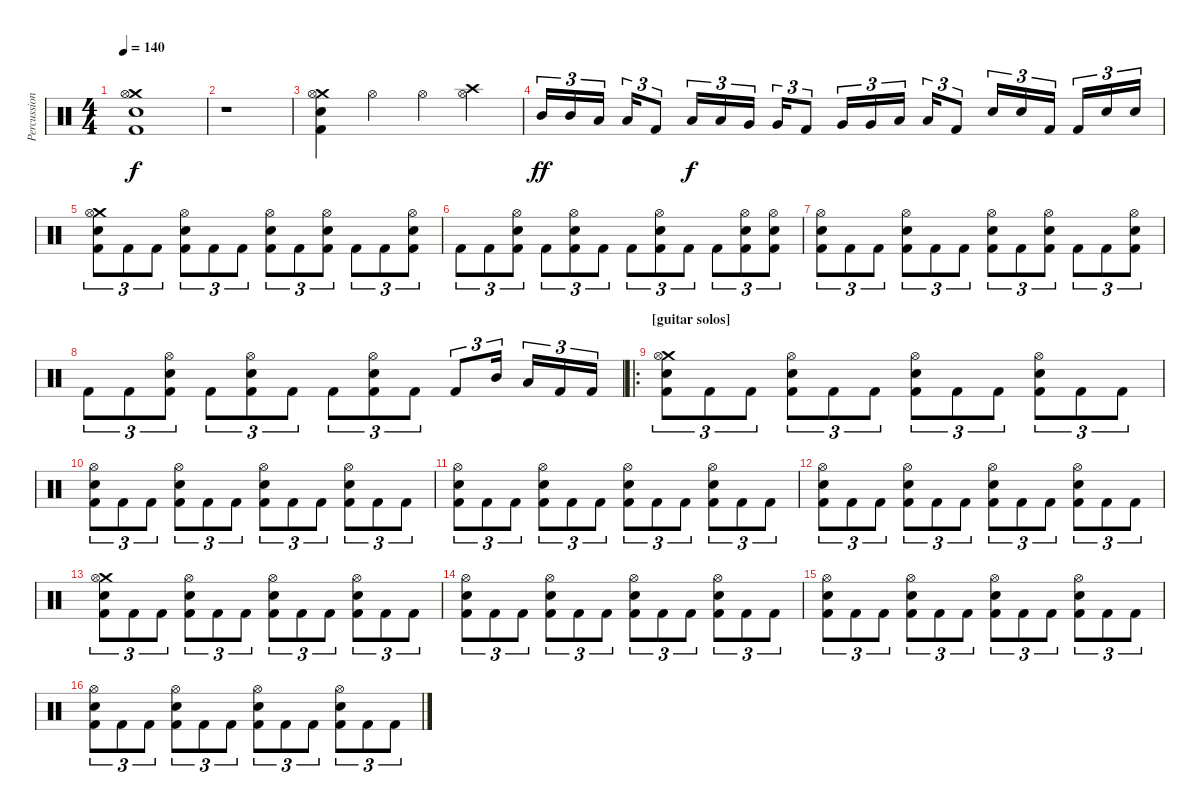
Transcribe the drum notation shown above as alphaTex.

\track ("Percussion" "Percussion") {instrument percussion}
\staff {score}
\articulation defaults
\ts (4 4)
\section ("" "")
\tempo 140
\clef neutral
\ks c
("Crash medium (hit)" "Hi-Hat (open)" "Electric Snare (hit)" "Kick (hit) 2").1{dy f} |
r.1 |
("Crash medium (hit)" "Hi-Hat (open)" "Electric Snare (hit)" "Kick (hit) 2").4 "Hi-Hat (open)".4 "Hi-Hat (open)".4 ("Crash high (hit)" "Hi-Hat (open)").4 |
"Mid Tom (hit)".16{tu (3 2) dy ff} "Mid Tom (hit)".16{tu (3 2)} "Low Tom (hit)".16{tu (3 2)} "Low Tom (hit)".16{tu (3 2)} "Kick (hit) 2".8{tu (3 2)} "Low Tom (hit)".16{tu (3 2) dy f} "Low Tom (hit)".16{tu (3 2)} "Very Low Tom (hit)".16{tu (3 2)} "Very Low Tom (hit)".16{tu (3 2)} "Kick (hit) 2".8{tu (3 2)} "Very Low Tom (hit)".16{tu (3 2)} "Very Low Tom (hit)".16{tu (3 2)} "Low Floor Tom (hit)".16{tu (3 2)} "Low Floor Tom (hit)".16{tu (3 2)} "Kick (hit) 2".8{tu (3 2)} "Electric Snare (hit)".16{tu (3 2)} "Electric Snare (hit)".16{tu (3 2)} "Kick (hit) 2".16{tu (3 2)} "Kick (hit) 2".16{tu (3 2)} "Electric Snare (hit)".16{tu (3 2)} "Electric Snare (hit)".16{tu (3 2)} |
("Crash medium (hit)" "Hi-Hat (open)" "Electric Snare (hit)" "Kick (hit) 2").8{tu (3 2)} "Kick (hit) 2".8{tu (3 2)} "Kick (hit) 2".8{tu (3 2)} ("Hi-Hat (open)" "Electric Snare (hit)" "Kick (hit) 2").8{tu (3 2)} "Kick (hit) 2".8{tu (3 2)} "Kick (hit) 2".8{tu (3 2)} ("Hi-Hat (open)" "Electric Snare (hit)" "Kick (hit) 2").8{tu (3 2)} "Kick (hit) 2".8{tu (3 2)} ("Hi-Hat (open)" "Electric Snare (hit)" "Kick (hit) 2").8{tu (3 2)} "Kick (hit) 2".8{tu (3 2)} "Kick (hit) 2".8{tu (3 2)} ("Hi-Hat (open)" "Electric Snare (hit)" "Kick (hit) 2").8{tu (3 2)} |
"Kick (hit) 2".8{tu (3 2)} "Kick (hit) 2".8{tu (3 2)} ("Hi-Hat (open)" "Electric Snare (hit)" "Kick (hit) 2").8{tu (3 2)} "Kick (hit) 2".8{tu (3 2)} ("Hi-Hat (open)" "Electric Snare (hit)" "Kick (hit) 2").8{tu (3 2)} "Kick (hit) 2".8{tu (3 2)} "Kick (hit) 2".8{tu (3 2)} ("Hi-Hat (open)" "Electric Snare (hit)" "Kick (hit) 2").8{tu (3 2)} "Kick (hit) 2".8{tu (3 2)} "Kick (hit) 2".8{tu (3 2)} ("Hi-Hat (open)" "Electric Snare (hit)" "Kick (hit) 2").8{tu (3 2)} ("Hi-Hat (open)" "Electric Snare (hit)" "Kick (hit) 2").8{tu (3 2)} |
("Hi-Hat (open)" "Electric Snare (hit)" "Kick (hit) 2").8{tu (3 2)} "Kick (hit) 2".8{tu (3 2)} "Kick (hit) 2".8{tu (3 2)} ("Hi-Hat (open)" "Electric Snare (hit)" "Kick (hit) 2").8{tu (3 2)} "Kick (hit) 2".8{tu (3 2)} "Kick (hit) 2".8{tu (3 2)} ("Hi-Hat (open)" "Electric Snare (hit)" "Kick (hit) 2").8{tu (3 2)} "Kick (hit) 2".8{tu (3 2)} ("Hi-Hat (open)" "Electric Snare (hit)" "Kick (hit) 2").8{tu (3 2)} "Kick (hit) 2".8{tu (3 2)} "Kick (hit) 2".8{tu (3 2)} ("Hi-Hat (open)" "Electric Snare (hit)" "Kick (hit) 2").8{tu (3 2)} |
"Kick (hit) 2".8{tu (3 2)} "Kick (hit) 2".8{tu (3 2)} ("Hi-Hat (open)" "Electric Snare (hit)" "Kick (hit) 2").8{tu (3 2)} "Kick (hit) 2".8{tu (3 2)} ("Hi-Hat (open)" "Electric Snare (hit)" "Kick (hit) 2").8{tu (3 2)} "Kick (hit) 2".8{tu (3 2)} "Kick (hit) 2".8{tu (3 2)} ("Hi-Hat (open)" "Electric Snare (hit)" "Kick (hit) 2").8{tu (3 2)} "Kick (hit) 2".8{tu (3 2)} "Kick (hit) 2".8{tu (3 2)} "Mid Tom (hit)".16{tu (3 2)} "Low Tom (hit)".16{tu (3 2)} "Kick (hit) 2".16{tu (3 2)} "Kick (hit) 2".16{tu (3 2)} |
\ro
\section ("" "[guitar solos]")
("Crash medium (hit)" "Hi-Hat (open)" "Electric Snare (hit)" "Kick (hit) 2").8{tu (3 2)} "Kick (hit) 2".8{tu (3 2)} "Kick (hit) 2".8{tu (3 2)} ("Hi-Hat (open)" "Electric Snare (hit)" "Kick (hit) 2").8{tu (3 2)} "Kick (hit) 2".8{tu (3 2)} "Kick (hit) 2".8{tu (3 2)} ("Hi-Hat (open)" "Electric Snare (hit)" "Kick (hit) 2").8{tu (3 2)} "Kick (hit) 2".8{tu (3 2)} "Kick (hit) 2".8{tu (3 2)} ("Hi-Hat (open)" "Electric Snare (hit)" "Kick (hit) 2").8{tu (3 2)} "Kick (hit) 2".8{tu (3 2)} "Kick (hit) 2".8{tu (3 2)} |
("Hi-Hat (open)" "Electric Snare (hit)" "Kick (hit) 2").8{tu (3 2)} "Kick (hit) 2".8{tu (3 2)} "Kick (hit) 2".8{tu (3 2)} ("Hi-Hat (open)" "Electric Snare (hit)" "Kick (hit) 2").8{tu (3 2)} "Kick (hit) 2".8{tu (3 2)} "Kick (hit) 2".8{tu (3 2)} ("Hi-Hat (open)" "Electric Snare (hit)" "Kick (hit) 2").8{tu (3 2)} "Kick (hit) 2".8{tu (3 2)} "Kick (hit) 2".8{tu (3 2)} ("Hi-Hat (open)" "Electric Snare (hit)" "Kick (hit) 2").8{tu (3 2)} "Kick (hit) 2".8{tu (3 2)} "Kick (hit) 2".8{tu (3 2)} |
("Hi-Hat (open)" "Electric Snare (hit)" "Kick (hit) 2").8{tu (3 2)} "Kick (hit) 2".8{tu (3 2)} "Kick (hit) 2".8{tu (3 2)} ("Hi-Hat (open)" "Electric Snare (hit)" "Kick (hit) 2").8{tu (3 2)} "Kick (hit) 2".8{tu (3 2)} "Kick (hit) 2".8{tu (3 2)} ("Hi-Hat (open)" "Electric Snare (hit)" "Kick (hit) 2").8{tu (3 2)} "Kick (hit) 2".8{tu (3 2)} "Kick (hit) 2".8{tu (3 2)} ("Hi-Hat (open)" "Electric Snare (hit)" "Kick (hit) 2").8{tu (3 2)} "Kick (hit) 2".8{tu (3 2)} "Kick (hit) 2".8{tu (3 2)} |
("Hi-Hat (open)" "Electric Snare (hit)" "Kick (hit) 2").8{tu (3 2)} "Kick (hit) 2".8{tu (3 2)} "Kick (hit) 2".8{tu (3 2)} ("Hi-Hat (open)" "Electric Snare (hit)" "Kick (hit) 2").8{tu (3 2)} "Kick (hit) 2".8{tu (3 2)} "Kick (hit) 2".8{tu (3 2)} ("Hi-Hat (open)" "Electric Snare (hit)" "Kick (hit) 2").8{tu (3 2)} "Kick (hit) 2".8{tu (3 2)} "Kick (hit) 2".8{tu (3 2)} ("Hi-Hat (open)" "Electric Snare (hit)" "Kick (hit) 2").8{tu (3 2)} "Kick (hit) 2".8{tu (3 2)} "Kick (hit) 2".8{tu (3 2)} |
("Crash medium (hit)" "Hi-Hat (open)" "Electric Snare (hit)" "Kick (hit) 2").8{tu (3 2)} "Kick (hit) 2".8{tu (3 2)} "Kick (hit) 2".8{tu (3 2)} ("Hi-Hat (open)" "Electric Snare (hit)" "Kick (hit) 2").8{tu (3 2)} "Kick (hit) 2".8{tu (3 2)} "Kick (hit) 2".8{tu (3 2)} ("Hi-Hat (open)" "Electric Snare (hit)" "Kick (hit) 2").8{tu (3 2)} "Kick (hit) 2".8{tu (3 2)} "Kick (hit) 2".8{tu (3 2)} ("Hi-Hat (open)" "Electric Snare (hit)" "Kick (hit) 2").8{tu (3 2)} "Kick (hit) 2".8{tu (3 2)} "Kick (hit) 2".8{tu (3 2)} |
("Hi-Hat (open)" "Electric Snare (hit)" "Kick (hit) 2").8{tu (3 2)} "Kick (hit) 2".8{tu (3 2)} "Kick (hit) 2".8{tu (3 2)} ("Hi-Hat (open)" "Electric Snare (hit)" "Kick (hit) 2").8{tu (3 2)} "Kick (hit) 2".8{tu (3 2)} "Kick (hit) 2".8{tu (3 2)} ("Hi-Hat (open)" "Electric Snare (hit)" "Kick (hit) 2").8{tu (3 2)} "Kick (hit) 2".8{tu (3 2)} "Kick (hit) 2".8{tu (3 2)} ("Hi-Hat (open)" "Electric Snare (hit)" "Kick (hit) 2").8{tu (3 2)} "Kick (hit) 2".8{tu (3 2)} "Kick (hit) 2".8{tu (3 2)} |
("Hi-Hat (open)" "Electric Snare (hit)" "Kick (hit) 2").8{tu (3 2)} "Kick (hit) 2".8{tu (3 2)} "Kick (hit) 2".8{tu (3 2)} ("Hi-Hat (open)" "Electric Snare (hit)" "Kick (hit) 2").8{tu (3 2)} "Kick (hit) 2".8{tu (3 2)} "Kick (hit) 2".8{tu (3 2)} ("Hi-Hat (open)" "Electric Snare (hit)" "Kick (hit) 2").8{tu (3 2)} "Kick (hit) 2".8{tu (3 2)} "Kick (hit) 2".8{tu (3 2)} ("Hi-Hat (open)" "Electric Snare (hit)" "Kick (hit) 2").8{tu (3 2)} "Kick (hit) 2".8{tu (3 2)} "Kick (hit) 2".8{tu (3 2)} |
("Hi-Hat (open)" "Electric Snare (hit)" "Kick (hit) 2").8{tu (3 2)} "Kick (hit) 2".8{tu (3 2)} "Kick (hit) 2".8{tu (3 2)} ("Hi-Hat (open)" "Electric Snare (hit)" "Kick (hit) 2").8{tu (3 2)} "Kick (hit) 2".8{tu (3 2)} "Kick (hit) 2".8{tu (3 2)} ("Hi-Hat (open)" "Electric Snare (hit)" "Kick (hit) 2").8{tu (3 2)} "Kick (hit) 2".8{tu (3 2)} "Kick (hit) 2".8{tu (3 2)} ("Hi-Hat (open)" "Electric Snare (hit)" "Kick (hit) 2").8{tu (3 2)} "Kick (hit) 2".8{tu (3 2)} "Kick (hit) 2".8{tu (3 2)}
